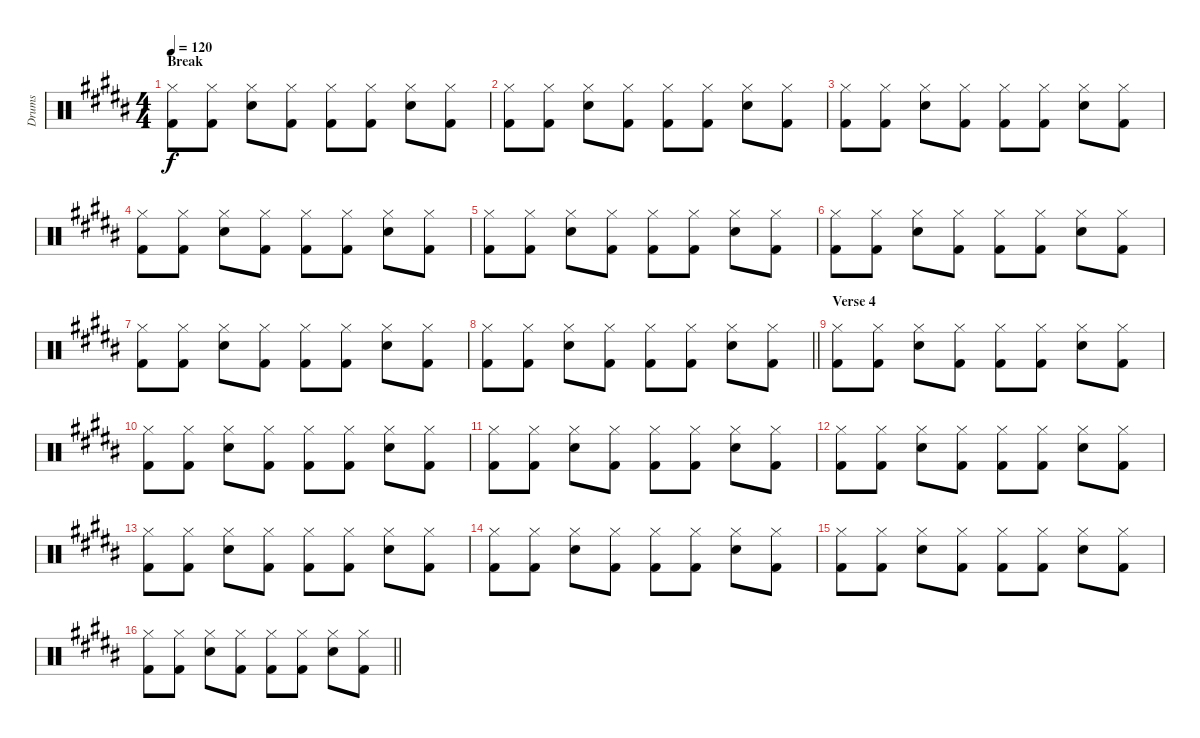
\track ("Drums" "Drums") {instrument percussion}
\staff {score}
\articulation defaults
\ts (4 4)
\section ("" "Break")
\tempo 120
\clef neutral
\ks b
("Kick (hit) 2" "Hi-Hat (closed)").8{dy f} ("Kick (hit) 2" "Hi-Hat (closed)").8 ("Snare (hit) 2" "Hi-Hat (closed)").8 ("Kick (hit) 2" "Hi-Hat (closed)").8 ("Kick (hit) 2" "Hi-Hat (closed)").8 ("Kick (hit) 2" "Hi-Hat (closed)").8 ("Snare (hit) 2" "Hi-Hat (closed)").8 ("Kick (hit) 2" "Hi-Hat (closed)").8 |
("Kick (hit) 2" "Hi-Hat (closed)").8 ("Kick (hit) 2" "Hi-Hat (closed)").8 ("Snare (hit) 2" "Hi-Hat (closed)").8 ("Kick (hit) 2" "Hi-Hat (closed)").8 ("Kick (hit) 2" "Hi-Hat (closed)").8 ("Kick (hit) 2" "Hi-Hat (closed)").8 ("Snare (hit) 2" "Hi-Hat (closed)").8 ("Kick (hit) 2" "Hi-Hat (closed)").8 |
("Kick (hit) 2" "Hi-Hat (closed)").8 ("Kick (hit) 2" "Hi-Hat (closed)").8 ("Snare (hit) 2" "Hi-Hat (closed)").8 ("Kick (hit) 2" "Hi-Hat (closed)").8 ("Kick (hit) 2" "Hi-Hat (closed)").8 ("Kick (hit) 2" "Hi-Hat (closed)").8 ("Snare (hit) 2" "Hi-Hat (closed)").8 ("Kick (hit) 2" "Hi-Hat (closed)").8 |
("Kick (hit) 2" "Hi-Hat (closed)").8 ("Kick (hit) 2" "Hi-Hat (closed)").8 ("Snare (hit) 2" "Hi-Hat (closed)").8 ("Kick (hit) 2" "Hi-Hat (closed)").8 ("Kick (hit) 2" "Hi-Hat (closed)").8 ("Kick (hit) 2" "Hi-Hat (closed)").8 ("Snare (hit) 2" "Hi-Hat (closed)").8 ("Kick (hit) 2" "Hi-Hat (closed)").8 |
("Kick (hit) 2" "Hi-Hat (closed)").8 ("Kick (hit) 2" "Hi-Hat (closed)").8 ("Snare (hit) 2" "Hi-Hat (closed)").8 ("Kick (hit) 2" "Hi-Hat (closed)").8 ("Kick (hit) 2" "Hi-Hat (closed)").8 ("Kick (hit) 2" "Hi-Hat (closed)").8 ("Snare (hit) 2" "Hi-Hat (closed)").8 ("Kick (hit) 2" "Hi-Hat (closed)").8 |
("Kick (hit) 2" "Hi-Hat (closed)").8 ("Kick (hit) 2" "Hi-Hat (closed)").8 ("Snare (hit) 2" "Hi-Hat (closed)").8 ("Kick (hit) 2" "Hi-Hat (closed)").8 ("Kick (hit) 2" "Hi-Hat (closed)").8 ("Kick (hit) 2" "Hi-Hat (closed)").8 ("Snare (hit) 2" "Hi-Hat (closed)").8 ("Kick (hit) 2" "Hi-Hat (closed)").8 |
("Kick (hit) 2" "Hi-Hat (closed)").8 ("Kick (hit) 2" "Hi-Hat (closed)").8 ("Snare (hit) 2" "Hi-Hat (closed)").8 ("Kick (hit) 2" "Hi-Hat (closed)").8 ("Kick (hit) 2" "Hi-Hat (closed)").8 ("Kick (hit) 2" "Hi-Hat (closed)").8 ("Snare (hit) 2" "Hi-Hat (closed)").8 ("Kick (hit) 2" "Hi-Hat (closed)").8 |
\barLineRight lightlight
("Kick (hit) 2" "Hi-Hat (closed)").8 ("Kick (hit) 2" "Hi-Hat (closed)").8 ("Snare (hit) 2" "Hi-Hat (closed)").8 ("Kick (hit) 2" "Hi-Hat (closed)").8 ("Kick (hit) 2" "Hi-Hat (closed)").8 ("Kick (hit) 2" "Hi-Hat (closed)").8 ("Snare (hit) 2" "Hi-Hat (closed)").8 ("Kick (hit) 2" "Hi-Hat (closed)").8 |
\section ("" "Verse 4")
("Kick (hit) 2" "Hi-Hat (closed)").8 ("Kick (hit) 2" "Hi-Hat (closed)").8 ("Snare (hit) 2" "Hi-Hat (closed)").8 ("Kick (hit) 2" "Hi-Hat (closed)").8 ("Kick (hit) 2" "Hi-Hat (closed)").8 ("Kick (hit) 2" "Hi-Hat (closed)").8 ("Snare (hit) 2" "Hi-Hat (closed)").8 ("Kick (hit) 2" "Hi-Hat (closed)").8 |
("Kick (hit) 2" "Hi-Hat (closed)").8 ("Kick (hit) 2" "Hi-Hat (closed)").8 ("Snare (hit) 2" "Hi-Hat (closed)").8 ("Kick (hit) 2" "Hi-Hat (closed)").8 ("Kick (hit) 2" "Hi-Hat (closed)").8 ("Kick (hit) 2" "Hi-Hat (closed)").8 ("Snare (hit) 2" "Hi-Hat (closed)").8 ("Kick (hit) 2" "Hi-Hat (closed)").8 |
("Kick (hit) 2" "Hi-Hat (closed)").8 ("Kick (hit) 2" "Hi-Hat (closed)").8 ("Snare (hit) 2" "Hi-Hat (closed)").8 ("Kick (hit) 2" "Hi-Hat (closed)").8 ("Kick (hit) 2" "Hi-Hat (closed)").8 ("Kick (hit) 2" "Hi-Hat (closed)").8 ("Snare (hit) 2" "Hi-Hat (closed)").8 ("Kick (hit) 2" "Hi-Hat (closed)").8 |
("Kick (hit) 2" "Hi-Hat (closed)").8 ("Kick (hit) 2" "Hi-Hat (closed)").8 ("Snare (hit) 2" "Hi-Hat (closed)").8 ("Kick (hit) 2" "Hi-Hat (closed)").8 ("Kick (hit) 2" "Hi-Hat (closed)").8 ("Kick (hit) 2" "Hi-Hat (closed)").8 ("Snare (hit) 2" "Hi-Hat (closed)").8 ("Kick (hit) 2" "Hi-Hat (closed)").8 |
("Kick (hit) 2" "Hi-Hat (closed)").8 ("Kick (hit) 2" "Hi-Hat (closed)").8 ("Snare (hit) 2" "Hi-Hat (closed)").8 ("Kick (hit) 2" "Hi-Hat (closed)").8 ("Kick (hit) 2" "Hi-Hat (closed)").8 ("Kick (hit) 2" "Hi-Hat (closed)").8 ("Snare (hit) 2" "Hi-Hat (closed)").8 ("Kick (hit) 2" "Hi-Hat (closed)").8 |
("Kick (hit) 2" "Hi-Hat (closed)").8 ("Kick (hit) 2" "Hi-Hat (closed)").8 ("Snare (hit) 2" "Hi-Hat (closed)").8 ("Kick (hit) 2" "Hi-Hat (closed)").8 ("Kick (hit) 2" "Hi-Hat (closed)").8 ("Kick (hit) 2" "Hi-Hat (closed)").8 ("Snare (hit) 2" "Hi-Hat (closed)").8 ("Kick (hit) 2" "Hi-Hat (closed)").8 |
("Kick (hit) 2" "Hi-Hat (closed)").8 ("Kick (hit) 2" "Hi-Hat (closed)").8 ("Snare (hit) 2" "Hi-Hat (closed)").8 ("Kick (hit) 2" "Hi-Hat (closed)").8 ("Kick (hit) 2" "Hi-Hat (closed)").8 ("Kick (hit) 2" "Hi-Hat (closed)").8 ("Snare (hit) 2" "Hi-Hat (closed)").8 ("Kick (hit) 2" "Hi-Hat (closed)").8 |
\barLineRight lightlight
("Kick (hit) 2" "Hi-Hat (closed)").8 ("Kick (hit) 2" "Hi-Hat (closed)").8 ("Snare (hit) 2" "Hi-Hat (closed)").8 ("Kick (hit) 2" "Hi-Hat (closed)").8 ("Kick (hit) 2" "Hi-Hat (closed)").8 ("Kick (hit) 2" "Hi-Hat (closed)").8 ("Snare (hit) 2" "Hi-Hat (closed)").8 ("Kick (hit) 2" "Hi-Hat (closed)").8
